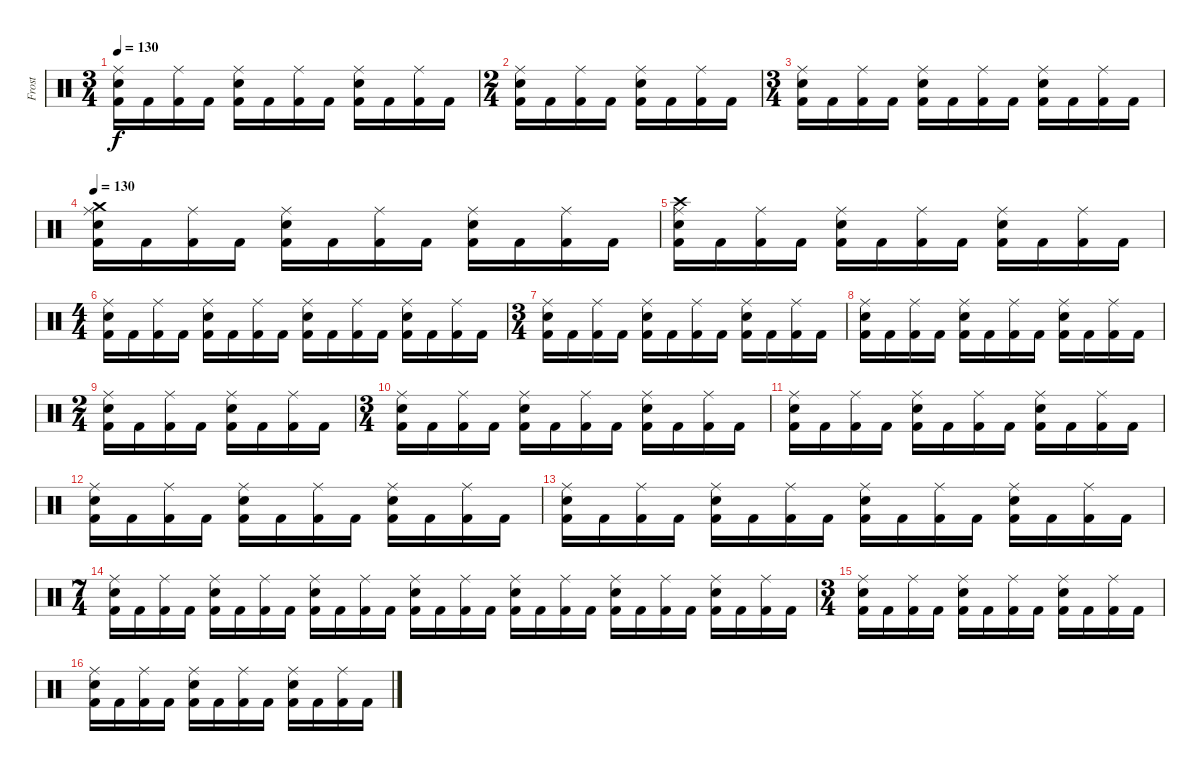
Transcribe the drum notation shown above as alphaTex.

\track ("Frost" "Frost") {instrument percussion}
\staff {score}
\articulation defaults
\ts (3 4)
\tempo 130
\clef neutral
\ks c
("Kick (hit) 2" "Ride (middle)" "Snare (hit) 2").16{dy f} "Kick (hit) 2".16 ("Kick (hit) 2" "Ride (middle)").16 "Kick (hit) 2".16 ("Kick (hit) 2" "Ride (middle)" "Snare (hit) 2").16 "Kick (hit) 2".16 ("Kick (hit) 2" "Ride (middle)").16 "Kick (hit) 2".16 ("Kick (hit) 2" "Ride (middle)" "Snare (hit) 2").16 "Kick (hit) 2".16 ("Kick (hit) 2" "Ride (middle)").16 "Kick (hit) 2".16 |
\ts (2 4)
("Kick (hit) 2" "Ride (middle)" "Snare (hit) 2").16 "Kick (hit) 2".16 ("Kick (hit) 2" "Ride (middle)").16 "Kick (hit) 2".16 ("Kick (hit) 2" "Ride (middle)" "Snare (hit) 2").16 "Kick (hit) 2".16 ("Kick (hit) 2" "Ride (middle)").16 "Kick (hit) 2".16 |
\ts (3 4)
("Kick (hit) 2" "Ride (middle)" "Snare (hit) 2").16 "Kick (hit) 2".16 ("Kick (hit) 2" "Ride (middle)").16 "Kick (hit) 2".16 ("Kick (hit) 2" "Ride (middle)" "Snare (hit) 2").16 "Kick (hit) 2".16 ("Kick (hit) 2" "Ride (middle)").16 "Kick (hit) 2".16 ("Kick (hit) 2" "Ride (middle)" "Snare (hit) 2").16 "Kick (hit) 2".16 ("Kick (hit) 2" "Ride (middle)").16 "Kick (hit) 2".16 |
\tempo 130
("Kick (hit) 2" "Ride (middle)" "Snare (hit) 2" "Crash medium (hit)").16 "Kick (hit) 2".16 ("Kick (hit) 2" "Ride (middle)").16 "Kick (hit) 2".16 ("Kick (hit) 2" "Ride (middle)" "Snare (hit) 2").16 "Kick (hit) 2".16 ("Kick (hit) 2" "Ride (middle)").16 "Kick (hit) 2".16 ("Kick (hit) 2" "Ride (middle)" "Snare (hit) 2").16 "Kick (hit) 2".16 ("Kick (hit) 2" "Ride (middle)").16 "Kick (hit) 2".16 |
("Kick (hit) 2" "Ride (middle)" "Snare (hit) 2" "Crash high (hit)").16 "Kick (hit) 2".16 ("Kick (hit) 2" "Ride (middle)").16 "Kick (hit) 2".16 ("Kick (hit) 2" "Ride (middle)" "Snare (hit) 2").16 "Kick (hit) 2".16 ("Kick (hit) 2" "Ride (middle)").16 "Kick (hit) 2".16 ("Kick (hit) 2" "Ride (middle)" "Snare (hit) 2").16 "Kick (hit) 2".16 ("Kick (hit) 2" "Ride (middle)").16 "Kick (hit) 2".16 |
\ts (4 4)
("Kick (hit) 2" "Ride (middle)" "Snare (hit) 2").16 "Kick (hit) 2".16 ("Kick (hit) 2" "Ride (middle)").16 "Kick (hit) 2".16 ("Kick (hit) 2" "Ride (middle)" "Snare (hit) 2").16 "Kick (hit) 2".16 ("Kick (hit) 2" "Ride (middle)").16 "Kick (hit) 2".16 ("Kick (hit) 2" "Ride (middle)" "Snare (hit) 2").16 "Kick (hit) 2".16 ("Kick (hit) 2" "Ride (middle)").16 "Kick (hit) 2".16 ("Kick (hit) 2" "Ride (middle)" "Snare (hit) 2").16 "Kick (hit) 2".16 ("Kick (hit) 2" "Ride (middle)").16 "Kick (hit) 2".16 |
\ts (3 4)
("Kick (hit) 2" "Ride (middle)" "Snare (hit) 2").16 "Kick (hit) 2".16 ("Kick (hit) 2" "Ride (middle)").16 "Kick (hit) 2".16 ("Kick (hit) 2" "Ride (middle)" "Snare (hit) 2").16 "Kick (hit) 2".16 ("Kick (hit) 2" "Ride (middle)").16 "Kick (hit) 2".16 ("Kick (hit) 2" "Ride (middle)" "Snare (hit) 2").16 "Kick (hit) 2".16 ("Kick (hit) 2" "Ride (middle)").16 "Kick (hit) 2".16 |
("Kick (hit) 2" "Ride (middle)" "Snare (hit) 2").16 "Kick (hit) 2".16 ("Kick (hit) 2" "Ride (middle)").16 "Kick (hit) 2".16 ("Kick (hit) 2" "Ride (middle)" "Snare (hit) 2").16 "Kick (hit) 2".16 ("Kick (hit) 2" "Ride (middle)").16 "Kick (hit) 2".16 ("Kick (hit) 2" "Ride (middle)" "Snare (hit) 2").16 "Kick (hit) 2".16 ("Kick (hit) 2" "Ride (middle)").16 "Kick (hit) 2".16 |
\ts (2 4)
("Kick (hit) 2" "Ride (middle)" "Snare (hit) 2").16 "Kick (hit) 2".16 ("Kick (hit) 2" "Ride (middle)").16 "Kick (hit) 2".16 ("Kick (hit) 2" "Ride (middle)" "Snare (hit) 2").16 "Kick (hit) 2".16 ("Kick (hit) 2" "Ride (middle)").16 "Kick (hit) 2".16 |
\ts (3 4)
("Kick (hit) 2" "Ride (middle)" "Snare (hit) 2").16 "Kick (hit) 2".16 ("Kick (hit) 2" "Ride (middle)").16 "Kick (hit) 2".16 ("Kick (hit) 2" "Ride (middle)" "Snare (hit) 2").16 "Kick (hit) 2".16 ("Kick (hit) 2" "Ride (middle)").16 "Kick (hit) 2".16 ("Kick (hit) 2" "Ride (middle)" "Snare (hit) 2").16 "Kick (hit) 2".16 ("Kick (hit) 2" "Ride (middle)").16 "Kick (hit) 2".16 |
("Kick (hit) 2" "Ride (middle)" "Snare (hit) 2").16 "Kick (hit) 2".16 ("Kick (hit) 2" "Ride (middle)").16 "Kick (hit) 2".16 ("Kick (hit) 2" "Ride (middle)" "Snare (hit) 2").16 "Kick (hit) 2".16 ("Kick (hit) 2" "Ride (middle)").16 "Kick (hit) 2".16 ("Kick (hit) 2" "Ride (middle)" "Snare (hit) 2").16 "Kick (hit) 2".16 ("Kick (hit) 2" "Ride (middle)").16 "Kick (hit) 2".16 |
("Kick (hit) 2" "Ride (middle)" "Snare (hit) 2").16 "Kick (hit) 2".16 ("Kick (hit) 2" "Ride (middle)").16 "Kick (hit) 2".16 ("Kick (hit) 2" "Ride (middle)" "Snare (hit) 2").16 "Kick (hit) 2".16 ("Kick (hit) 2" "Ride (middle)").16 "Kick (hit) 2".16 ("Kick (hit) 2" "Ride (middle)" "Snare (hit) 2").16 "Kick (hit) 2".16 ("Kick (hit) 2" "Ride (middle)").16 "Kick (hit) 2".16 |
("Kick (hit) 2" "Ride (middle)" "Snare (hit) 2").16 "Kick (hit) 2".16 ("Kick (hit) 2" "Ride (middle)").16 "Kick (hit) 2".16 ("Kick (hit) 2" "Ride (middle)" "Snare (hit) 2").16 "Kick (hit) 2".16 ("Kick (hit) 2" "Ride (middle)").16 "Kick (hit) 2".16 ("Kick (hit) 2" "Ride (middle)" "Snare (hit) 2").16 "Kick (hit) 2".16 ("Kick (hit) 2" "Ride (middle)").16 "Kick (hit) 2".16 ("Kick (hit) 2" "Ride (middle)" "Snare (hit) 2").16 "Kick (hit) 2".16 ("Kick (hit) 2" "Ride (middle)").16 "Kick (hit) 2".16 |
\ts (7 4)
("Kick (hit) 2" "Ride (middle)" "Snare (hit) 2").16 "Kick (hit) 2".16 ("Kick (hit) 2" "Ride (middle)").16 "Kick (hit) 2".16 ("Kick (hit) 2" "Ride (middle)" "Snare (hit) 2").16 "Kick (hit) 2".16 ("Kick (hit) 2" "Ride (middle)").16 "Kick (hit) 2".16 ("Kick (hit) 2" "Ride (middle)" "Snare (hit) 2").16 "Kick (hit) 2".16 ("Kick (hit) 2" "Ride (middle)").16 "Kick (hit) 2".16 ("Kick (hit) 2" "Ride (middle)" "Snare (hit) 2").16 "Kick (hit) 2".16 ("Kick (hit) 2" "Ride (middle)").16 "Kick (hit) 2".16 ("Kick (hit) 2" "Ride (middle)" "Snare (hit) 2").16 "Kick (hit) 2".16 ("Kick (hit) 2" "Ride (middle)").16 "Kick (hit) 2".16 ("Kick (hit) 2" "Ride (middle)" "Snare (hit) 2").16 "Kick (hit) 2".16 ("Kick (hit) 2" "Ride (middle)").16 "Kick (hit) 2".16 ("Kick (hit) 2" "Ride (middle)" "Snare (hit) 2").16 "Kick (hit) 2".16 ("Kick (hit) 2" "Ride (middle)").16 "Kick (hit) 2".16 |
\ts (3 4)
("Kick (hit) 2" "Ride (middle)" "Snare (hit) 2").16 "Kick (hit) 2".16 ("Kick (hit) 2" "Ride (middle)").16 "Kick (hit) 2".16 ("Kick (hit) 2" "Ride (middle)" "Snare (hit) 2").16 "Kick (hit) 2".16 ("Kick (hit) 2" "Ride (middle)").16 "Kick (hit) 2".16 ("Kick (hit) 2" "Ride (middle)" "Snare (hit) 2").16 "Kick (hit) 2".16 ("Kick (hit) 2" "Ride (middle)").16 "Kick (hit) 2".16 |
("Kick (hit) 2" "Ride (middle)" "Snare (hit) 2").16 "Kick (hit) 2".16 ("Kick (hit) 2" "Ride (middle)").16 "Kick (hit) 2".16 ("Kick (hit) 2" "Ride (middle)" "Snare (hit) 2").16 "Kick (hit) 2".16 ("Kick (hit) 2" "Ride (middle)").16 "Kick (hit) 2".16 ("Kick (hit) 2" "Ride (middle)" "Snare (hit) 2").16 "Kick (hit) 2".16 ("Kick (hit) 2" "Ride (middle)").16 "Kick (hit) 2".16
